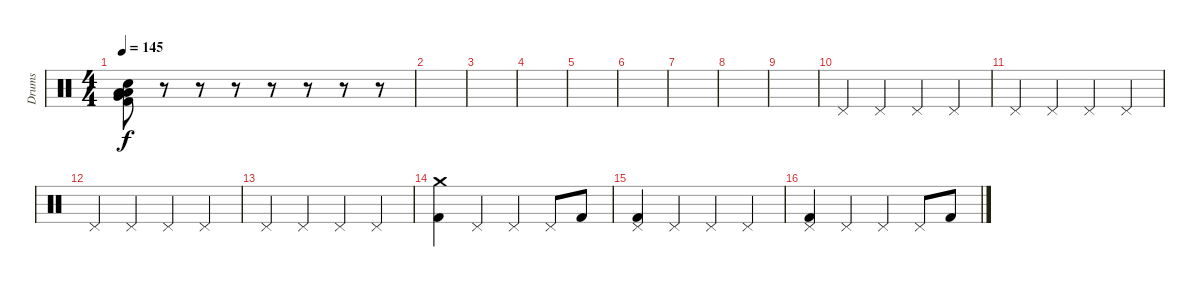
\track ("Drums" "Drums") {instrument percussion}
\staff {score}
\articulation defaults
\ts (4 4)
\tempo 145
\clef neutral
\ks c
("Snare (hit) 2" "Low Floor Tom (hit)" "Kick (hit) 2" "Very Low Tom (hit)" "Low Tom (hit)").8{dy f} r.8 r.8 r.8 r.8 r.8 r.8 r.8 |
|
|
|
|
|
|
|
|
"Pedal Hi-Hat (hit)".4 "Pedal Hi-Hat (hit)".4 "Pedal Hi-Hat (hit)".4 "Pedal Hi-Hat (hit)".4 |
"Pedal Hi-Hat (hit)".4 "Pedal Hi-Hat (hit)".4 "Pedal Hi-Hat (hit)".4 "Pedal Hi-Hat (hit)".4 |
"Pedal Hi-Hat (hit)".4 "Pedal Hi-Hat (hit)".4 "Pedal Hi-Hat (hit)".4 "Pedal Hi-Hat (hit)".4 |
"Pedal Hi-Hat (hit)".4 "Pedal Hi-Hat (hit)".4 "Pedal Hi-Hat (hit)".4 "Pedal Hi-Hat (hit)".4 |
("Crash medium (hit)" "Kick (hit) 2").4 "Pedal Hi-Hat (hit)".4 "Pedal Hi-Hat (hit)".4 "Pedal Hi-Hat (hit)".8 "Kick (hit) 2".8 |
("Pedal Hi-Hat (hit)" "Kick (hit) 2").4 "Pedal Hi-Hat (hit)".4 "Pedal Hi-Hat (hit)".4 "Pedal Hi-Hat (hit)".4 |
("Pedal Hi-Hat (hit)" "Kick (hit) 2").4 "Pedal Hi-Hat (hit)".4 "Pedal Hi-Hat (hit)".4 "Pedal Hi-Hat (hit)".8 "Kick (hit) 2".8
